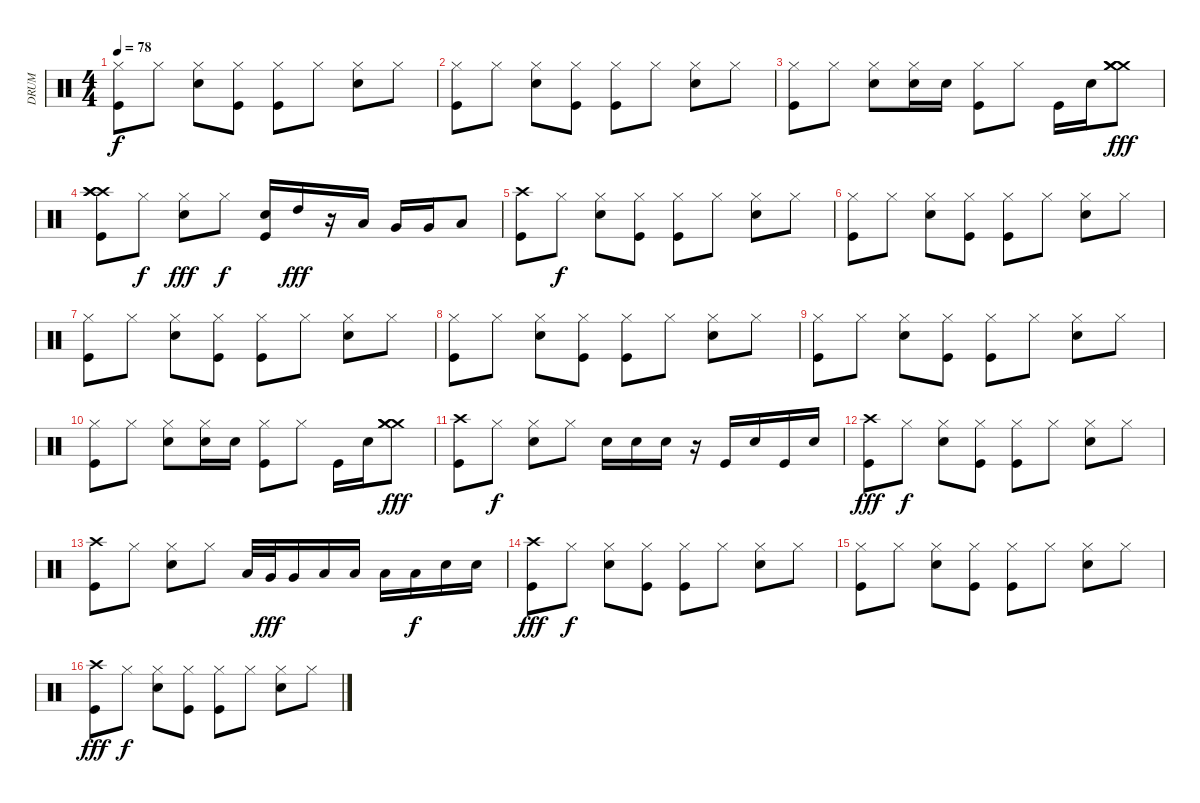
\track ("DRUM" "DRUM") {instrument percussion}
\staff {score}
\articulation defaults
\ts (4 4)
\tempo 78
\clef neutral
\ks c
("Hi-Hat (closed)" "Kick (hit)").8{dy f} "Hi-Hat (closed)".8 ("Hi-Hat (closed)" "Electric Snare (hit)").8 ("Hi-Hat (closed)" "Kick (hit)").8 ("Hi-Hat (closed)" "Kick (hit)").8 "Hi-Hat (closed)".8 ("Hi-Hat (closed)" "Electric Snare (hit)").8 "Hi-Hat (closed)".8 |
("Hi-Hat (closed)" "Kick (hit)").8 "Hi-Hat (closed)".8 ("Hi-Hat (closed)" "Electric Snare (hit)").8 ("Hi-Hat (closed)" "Kick (hit)").8 ("Hi-Hat (closed)" "Kick (hit)").8 "Hi-Hat (closed)".8 ("Hi-Hat (closed)" "Electric Snare (hit)").8 "Hi-Hat (closed)".8 |
("Hi-Hat (closed)" "Kick (hit)").8 "Hi-Hat (closed)".8 ("Hi-Hat (closed)" "Electric Snare (hit)").8 ("Hi-Hat (closed)" "Electric Snare (hit)").16 "Electric Snare (hit)".16 ("Hi-Hat (closed)" "Kick (hit)").8 "Hi-Hat (closed)".8 "Kick (hit)".16 "Electric Snare (hit)".16 ("Crash medium (hit)" "Crash medium (hit)" "Crash medium (hit)").8{dy fff} |
("Crash high (hit)" "Crash high (hit)" "Crash high (hit)" "Kick (hit)").8 "Hi-Hat (closed)".8{dy f} ("Hi-Hat (closed)" "Electric Snare (hit)").8{dy fff} "Hi-Hat (closed)".8{dy f} ("Electric Snare (hit)" "Kick (hit)").16 "High Tom (hit)".16{dy fff} r.16 "Low Tom (hit)".16 "Very Low Tom (hit)".16 "Very Low Tom (hit)".16 "Low Floor Tom (hit)".8 |
("Crash high (hit)" "Kick (hit)").8 "Hi-Hat (closed)".8{dy f} ("Hi-Hat (closed)" "Electric Snare (hit)").8 ("Hi-Hat (closed)" "Kick (hit)").8 ("Hi-Hat (closed)" "Kick (hit)").8 "Hi-Hat (closed)".8 ("Hi-Hat (closed)" "Electric Snare (hit)").8 "Hi-Hat (closed)".8 |
("Hi-Hat (closed)" "Kick (hit)").8 "Hi-Hat (closed)".8 ("Hi-Hat (closed)" "Electric Snare (hit)").8 ("Hi-Hat (closed)" "Kick (hit)").8 ("Hi-Hat (closed)" "Kick (hit)").8 "Hi-Hat (closed)".8 ("Hi-Hat (closed)" "Electric Snare (hit)").8 "Hi-Hat (closed)".8 |
("Hi-Hat (closed)" "Kick (hit)").8 "Hi-Hat (closed)".8 ("Hi-Hat (closed)" "Electric Snare (hit)").8 ("Hi-Hat (closed)" "Kick (hit)").8 ("Hi-Hat (closed)" "Kick (hit)").8 "Hi-Hat (closed)".8 ("Hi-Hat (closed)" "Electric Snare (hit)").8 "Hi-Hat (closed)".8 |
("Hi-Hat (closed)" "Kick (hit)").8 "Hi-Hat (closed)".8 ("Hi-Hat (closed)" "Electric Snare (hit)").8 ("Hi-Hat (closed)" "Kick (hit)").8 ("Hi-Hat (closed)" "Kick (hit)").8 "Hi-Hat (closed)".8 ("Hi-Hat (closed)" "Electric Snare (hit)").8 "Hi-Hat (closed)".8 |
("Hi-Hat (closed)" "Kick (hit)").8 "Hi-Hat (closed)".8 ("Hi-Hat (closed)" "Electric Snare (hit)").8 ("Hi-Hat (closed)" "Kick (hit)").8 ("Hi-Hat (closed)" "Kick (hit)").8 "Hi-Hat (closed)".8 ("Hi-Hat (closed)" "Electric Snare (hit)").8 "Hi-Hat (closed)".8 |
("Hi-Hat (closed)" "Kick (hit)").8 "Hi-Hat (closed)".8 ("Hi-Hat (closed)" "Electric Snare (hit)").8 ("Hi-Hat (closed)" "Electric Snare (hit)").16 "Electric Snare (hit)".16 ("Hi-Hat (closed)" "Kick (hit)").8 "Hi-Hat (closed)".8 "Kick (hit)".16 "Electric Snare (hit)".16 ("Crash medium (hit)" "Crash medium (hit)" "Crash medium (hit)").8{dy fff} |
("Crash high (hit)" "Kick (hit)").8 "Hi-Hat (closed)".8{dy f} ("Hi-Hat (closed)" "Electric Snare (hit)").8 "Hi-Hat (closed)".8 "Electric Snare (hit)".16 "Electric Snare (hit)".16 "Electric Snare (hit)".16 r.16 "Kick (hit)".16 "Electric Snare (hit)".16 "Kick (hit)".16 "Electric Snare (hit)".16 |
("Crash high (hit)" "Kick (hit)").8{dy fff} "Hi-Hat (closed)".8{dy f} ("Hi-Hat (closed)" "Electric Snare (hit)").8 ("Hi-Hat (closed)" "Kick (hit)").8 ("Hi-Hat (closed)" "Kick (hit)").8 "Hi-Hat (closed)".8 ("Hi-Hat (closed)" "Electric Snare (hit)").8 "Hi-Hat (closed)".8 |
("Crash high (hit)" "Kick (hit)").8 "Hi-Hat (closed)".8 ("Hi-Hat (closed)" "Electric Snare (hit)").8 "Hi-Hat (closed)".8 "Low Tom (hit)".32 "Very Low Tom (hit)".32{dy fff} "Very Low Tom (hit)".16 "Low Floor Tom (hit)".16 "Low Floor Tom (hit)".16 "Low Floor Tom (hit)".16 "Low Floor Tom (hit)".16{dy f} "Electric Snare (hit)".16 "Electric Snare (hit)".16 |
("Crash high (hit)" "Kick (hit)").8{dy fff} "Hi-Hat (closed)".8{dy f} ("Hi-Hat (closed)" "Electric Snare (hit)").8 ("Hi-Hat (closed)" "Kick (hit)").8 ("Hi-Hat (closed)" "Kick (hit)").8 "Hi-Hat (closed)".8 ("Hi-Hat (closed)" "Electric Snare (hit)").8 "Hi-Hat (closed)".8 |
("Hi-Hat (closed)" "Kick (hit)").8 "Hi-Hat (closed)".8 ("Hi-Hat (closed)" "Electric Snare (hit)").8 ("Hi-Hat (closed)" "Kick (hit)").8 ("Hi-Hat (closed)" "Kick (hit)").8 "Hi-Hat (closed)".8 ("Hi-Hat (closed)" "Electric Snare (hit)").8 "Hi-Hat (closed)".8 |
("Crash high (hit)" "Kick (hit)").8{dy fff} "Hi-Hat (closed)".8{dy f} ("Hi-Hat (closed)" "Electric Snare (hit)").8 ("Hi-Hat (closed)" "Kick (hit)").8 ("Hi-Hat (closed)" "Kick (hit)").8 "Hi-Hat (closed)".8 ("Hi-Hat (closed)" "Electric Snare (hit)").8 "Hi-Hat (closed)".8
